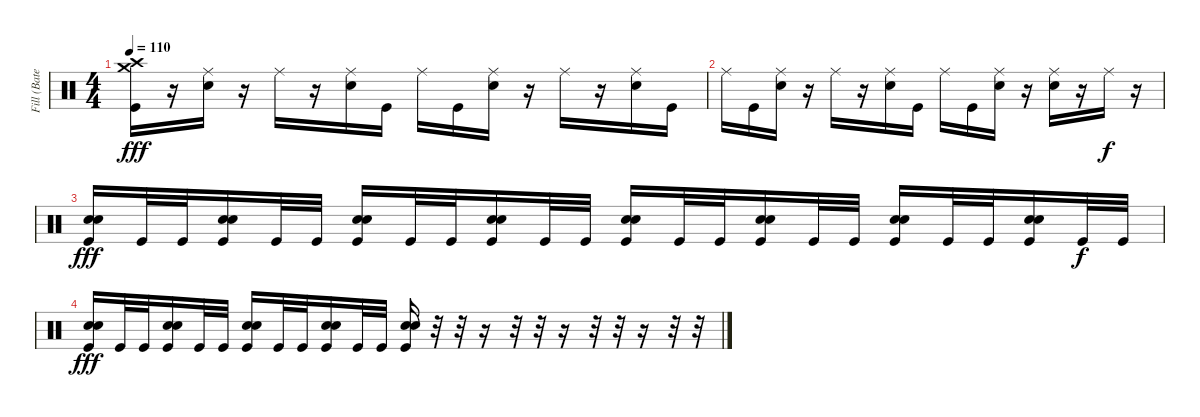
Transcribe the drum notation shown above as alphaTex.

\track ("Fill (Bateria)" "Fill (Bate") {instrument percussion}
\staff {score}
\articulation defaults
\ts (4 4)
\tempo 110
\clef neutral
\ks c
("Kick (hit)" "Crash high (hit)" "Crash medium (hit)").16{dy fff} r.16 ("Electric Snare (hit)" "Ride (middle)").16 r.16 "Ride (middle)".16 r.16 ("Electric Snare (hit)" "Ride (middle)").16 "Kick (hit)".16 "Ride (middle)".16 "Kick (hit)".16 ("Electric Snare (hit)" "Ride (middle)").16 r.16 "Ride (middle)".16 r.16 ("Electric Snare (hit)" "Ride (middle)").16 "Kick (hit)".16 |
"Ride (middle)".16 "Kick (hit)".16 ("Electric Snare (hit)" "Ride (middle)").16 r.16 "Ride (middle)".16 r.16 ("Electric Snare (hit)" "Ride (middle)").16 "Kick (hit)".16 "Ride (middle)".16 "Kick (hit)".16 ("Electric Snare (hit)" "Ride (middle)").16 r.16 ("Electric Snare (hit)" "Ride (middle)").16 r.16 "Ride (middle)".16{dy f} r.16 |
("Electric Snare (hit)" "Electric Snare (hit)" "Kick (hit)").16{dy fff} "Kick (hit)".32 "Kick (hit)".32 ("Electric Snare (hit)" "Electric Snare (hit)" "Kick (hit)").16 "Kick (hit)".32 "Kick (hit)".32 ("Electric Snare (hit)" "Electric Snare (hit)" "Kick (hit)").16 "Kick (hit)".32 "Kick (hit)".32 ("Electric Snare (hit)" "Electric Snare (hit)" "Kick (hit)").16 "Kick (hit)".32 "Kick (hit)".32 ("Electric Snare (hit)" "Electric Snare (hit)" "Kick (hit)").16 "Kick (hit)".32 "Kick (hit)".32 ("Electric Snare (hit)" "Electric Snare (hit)" "Kick (hit)").16 "Kick (hit)".32 "Kick (hit)".32 ("Electric Snare (hit)" "Electric Snare (hit)" "Kick (hit)").16 "Kick (hit)".32 "Kick (hit)".32 ("Electric Snare (hit)" "Electric Snare (hit)" "Kick (hit)").16 "Kick (hit)".32{dy f} "Kick (hit)".32 |
("Electric Snare (hit)" "Electric Snare (hit)" "Kick (hit)").16{dy fff} "Kick (hit)".32 "Kick (hit)".32 ("Electric Snare (hit)" "Electric Snare (hit)" "Kick (hit)").16 "Kick (hit)".32 "Kick (hit)".32 ("Electric Snare (hit)" "Electric Snare (hit)" "Kick (hit)").16 "Kick (hit)".32 "Kick (hit)".32 ("Electric Snare (hit)" "Electric Snare (hit)" "Kick (hit)").16 "Kick (hit)".32 "Kick (hit)".32 ("Electric Snare (hit)" "Electric Snare (hit)" "Kick (hit)").16 r.32 r.32 r.16 r.32 r.32 r.16 r.32 r.32 r.16 r.32 r.32
